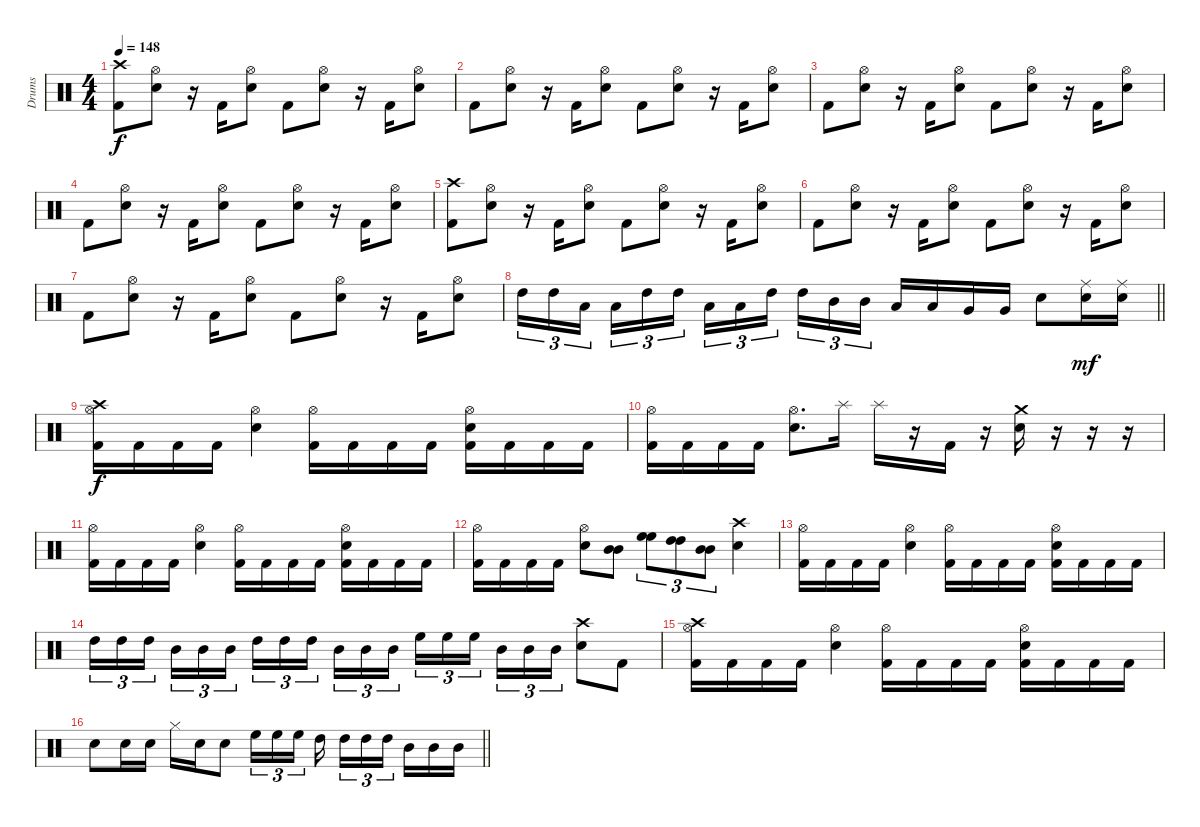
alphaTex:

\track ("Drums" "Drums") {instrument percussion}
\staff {score}
\articulation defaults
\ts (4 4)
\section ("" "")
\tempo 148
\clef neutral
\ks c
("Crash high (hit)" "Kick (hit) 2").8{dy f} ("Electric Snare (hit)" "Hi-Hat (open)").8 r.16 "Kick (hit) 2".16 ("Electric Snare (hit)" "Hi-Hat (open)").8 "Kick (hit) 2".8 ("Electric Snare (hit)" "Hi-Hat (open)").8 r.16 "Kick (hit) 2".16 ("Electric Snare (hit)" "Hi-Hat (open)").8 |
"Kick (hit) 2".8 ("Electric Snare (hit)" "Hi-Hat (open)").8 r.16 "Kick (hit) 2".16 ("Electric Snare (hit)" "Hi-Hat (open)").8 "Kick (hit) 2".8 ("Electric Snare (hit)" "Hi-Hat (open)").8 r.16 "Kick (hit) 2".16 ("Electric Snare (hit)" "Hi-Hat (open)").8 |
"Kick (hit) 2".8 ("Electric Snare (hit)" "Hi-Hat (open)").8 r.16 "Kick (hit) 2".16 ("Electric Snare (hit)" "Hi-Hat (open)").8 "Kick (hit) 2".8 ("Electric Snare (hit)" "Hi-Hat (open)").8 r.16 "Kick (hit) 2".16 ("Electric Snare (hit)" "Hi-Hat (open)").8 |
"Kick (hit) 2".8 ("Electric Snare (hit)" "Hi-Hat (open)").8 r.16 "Kick (hit) 2".16 ("Electric Snare (hit)" "Hi-Hat (open)").8 "Kick (hit) 2".8 ("Electric Snare (hit)" "Hi-Hat (open)").8 r.16 "Kick (hit) 2".16 ("Electric Snare (hit)" "Hi-Hat (open)").8 |
("Crash high (hit)" "Kick (hit) 2").8 ("Electric Snare (hit)" "Hi-Hat (open)").8 r.16 "Kick (hit) 2".16 ("Electric Snare (hit)" "Hi-Hat (open)").8 "Kick (hit) 2".8 ("Electric Snare (hit)" "Hi-Hat (open)").8 r.16 "Kick (hit) 2".16 ("Electric Snare (hit)" "Hi-Hat (open)").8 |
"Kick (hit) 2".8 ("Electric Snare (hit)" "Hi-Hat (open)").8 r.16 "Kick (hit) 2".16 ("Electric Snare (hit)" "Hi-Hat (open)").8 "Kick (hit) 2".8 ("Electric Snare (hit)" "Hi-Hat (open)").8 r.16 "Kick (hit) 2".16 ("Electric Snare (hit)" "Hi-Hat (open)").8 |
"Kick (hit) 2".8 ("Electric Snare (hit)" "Hi-Hat (open)").8 r.16 "Kick (hit) 2".16 ("Electric Snare (hit)" "Hi-Hat (open)").8 "Kick (hit) 2".8 ("Electric Snare (hit)" "Hi-Hat (open)").8 r.16 "Kick (hit) 2".16 ("Electric Snare (hit)" "Hi-Hat (open)").8 |
\barLineRight lightlight "High Tom (hit)".16{tu (3 2)} "High Tom (hit)".16{tu (3 2)} "Low Tom (hit)".16{tu (3 2)} "Low Tom (hit)".16{tu (3 2)} "High Tom (hit)".16{tu (3 2)} "High Tom (hit)".16{tu (3 2)} "Low Tom (hit)".16{tu (3 2)} "Low Tom (hit)".16{tu (3 2)} "High Tom (hit)".16{tu (3 2)} "High Tom (hit)".16{tu (3 2)} "Mid Tom (hit)".16{tu (3 2)} "Mid Tom (hit)".16{tu (3 2)} "Low Tom (hit)".16 "Low Tom (hit)".16 "Very Low Tom (hit)".16 "Very Low Tom (hit)".16 "Electric Snare (hit)".8
("Electric Snare (hit)" "Ride (middle)").16{dy mf} ("Electric Snare (hit)" "Ride (middle)").16 |
\section ("" "")
("Crash high (hit)" "Hi-Hat (open)" "Kick (hit) 2").16{dy f} "Kick (hit) 2".16 "Kick (hit) 2".16 "Kick (hit) 2".16 ("Electric Snare (hit)" "Hi-Hat (open)").4 ("Hi-Hat (open)" "Kick (hit) 2").16 "Kick (hit) 2".16 "Kick (hit) 2".16 "Kick (hit) 2".16 ("Electric Snare (hit)" "Hi-Hat (open)" "Kick (hit) 2").16 "Kick (hit) 2".16 "Kick (hit) 2".16 "Kick (hit) 2".16 |
("Hi-Hat (open)" "Kick (hit) 2").16 "Kick (hit) 2".16 "Kick (hit) 2".16 "Kick (hit) 2".16 ("Electric Snare (hit)" "Hi-Hat (open)").8{d} "Splash (hit)".16 "Splash (hit)".16 r.16 "Kick (hit) 2".16 r.16 ("Electric Snare (hit)" "Crash medium (hit)").16 r.16 r.16 r.16 |
("Hi-Hat (open)" "Kick (hit) 2").16 "Kick (hit) 2".16 "Kick (hit) 2".16 "Kick (hit) 2".16 ("Electric Snare (hit)" "Hi-Hat (open)").4 ("Hi-Hat (open)" "Kick (hit) 2").16 "Kick (hit) 2".16 "Kick (hit) 2".16 "Kick (hit) 2".16 ("Electric Snare (hit)" "Hi-Hat (open)" "Kick (hit) 2").16 "Kick (hit) 2".16 "Kick (hit) 2".16 "Kick (hit) 2".16 |
("Hi-Hat (open)" "Kick (hit) 2").16 "Kick (hit) 2".16 "Kick (hit) 2".16 "Kick (hit) 2".16 ("Electric Snare (hit)" "Hi-Hat (open)").8 ("Mid Tom (hit)" "Mid Tom (hit)").8 ("High Floor Tom (hit)" "High Floor Tom (hit)").8{tu (3 2)} ("High Tom (hit)" "High Tom (hit)").8{tu (3 2)} ("Mid Tom (hit)" "Mid Tom (hit)").8{tu (3 2)} ("Electric Snare (hit)" "Crash high (hit)").4 |
("Hi-Hat (open)" "Kick (hit) 2").16 "Kick (hit) 2".16 "Kick (hit) 2".16 "Kick (hit) 2".16 ("Electric Snare (hit)" "Hi-Hat (open)").4 ("Hi-Hat (open)" "Kick (hit) 2").16 "Kick (hit) 2".16 "Kick (hit) 2".16 "Kick (hit) 2".16 ("Electric Snare (hit)" "Hi-Hat (open)" "Kick (hit) 2").16 "Kick (hit) 2".16 "Kick (hit) 2".16 "Kick (hit) 2".16 |
"High Tom (hit)".16{tu (3 2)} "High Tom (hit)".16{tu (3 2)} "High Tom (hit)".16{tu (3 2)} "Mid Tom (hit)".16{tu (3 2)} "Mid Tom (hit)".16{tu (3 2)} "Mid Tom (hit)".16{tu (3 2)} "High Tom (hit)".16{tu (3 2)} "High Tom (hit)".16{tu (3 2)} "High Tom (hit)".16{tu (3 2)} "Mid Tom (hit)".16{tu (3 2)} "Mid Tom (hit)".16{tu (3 2)} "Mid Tom (hit)".16{tu (3 2)} "High Floor Tom (hit)".16{tu (3 2)} "High Floor Tom (hit)".16{tu (3 2)} "High Floor Tom (hit)".16{tu (3 2)} "Mid Tom (hit)".16{tu (3 2)} "Mid Tom (hit)".16{tu (3 2)} "Mid Tom (hit)".16{tu (3 2)} ("Electric Snare (hit)" "Crash high (hit)").8 "Kick (hit) 2".8 |
("Crash high (hit)" "Hi-Hat (open)" "Kick (hit) 2").16 "Kick (hit) 2".16 "Kick (hit) 2".16 "Kick (hit) 2".16 ("Electric Snare (hit)" "Hi-Hat (open)").4 ("Hi-Hat (open)" "Kick (hit) 2").16 "Kick (hit) 2".16 "Kick (hit) 2".16 "Kick (hit) 2".16 ("Electric Snare (hit)" "Hi-Hat (open)" "Kick (hit) 2").16 "Kick (hit) 2".16 "Kick (hit) 2".16 "Kick (hit) 2".16 |
\barLineRight lightlight "Electric Snare (hit)".8 "Electric Snare (hit)".16 "Electric Snare (hit)".16 "Hi-Hat (closed)".16 "Electric Snare (hit)".16 "Electric Snare (hit)".8 "High Floor Tom (hit)".16{tu (3 2)} "High Floor Tom (hit)".16{tu (3 2)} "High Floor Tom (hit)".16{tu (3 2)} "High Tom (hit)".16 "High Tom (hit)".16{tu (3 2)} "High Tom (hit)".16{tu (3 2)} "High Tom (hit)".16{tu (3 2)} "Mid Tom (hit)".16 "Mid Tom (hit)".16 "Mid Tom (hit)".16
